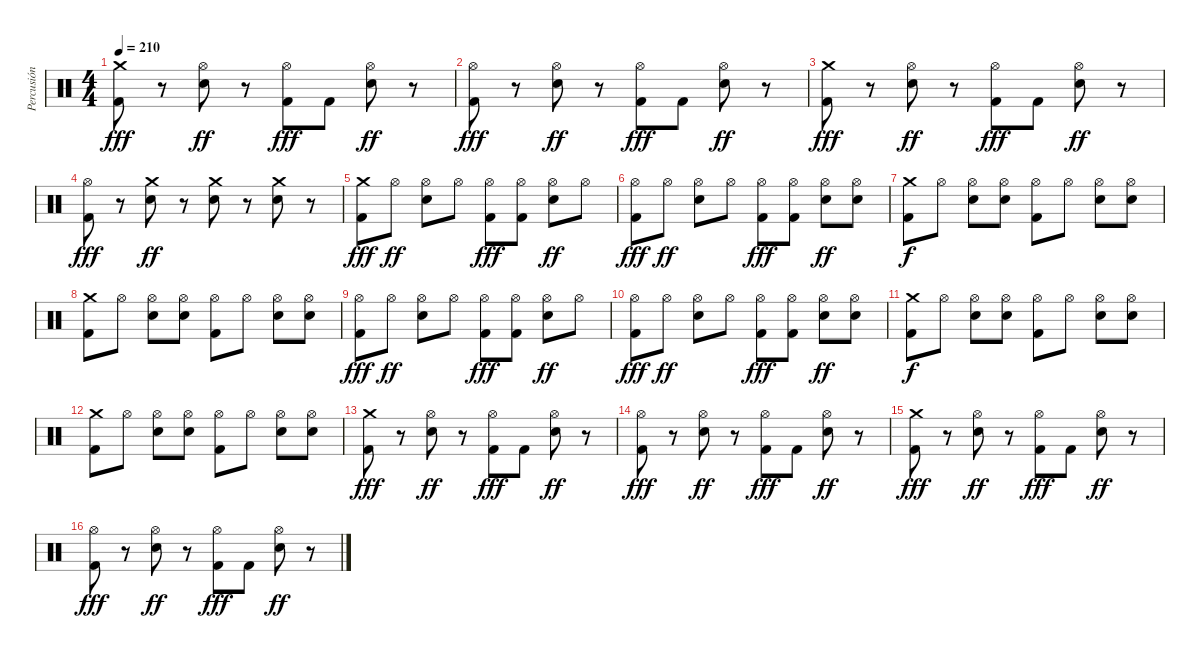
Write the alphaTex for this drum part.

\track ("Percusión" "Percusión") {instrument percussion}
\staff {score}
\articulation defaults
\ts (4 4)
\tempo 210
\clef neutral
\ks c
("Crash medium (hit)" "Kick (hit) 2").8{dy fff} r.8 ("Hi-Hat (open)" "Electric Snare (hit)").8{dy ff} r.8 ("Hi-Hat (open)" "Kick (hit) 2").8{dy fff} "Kick (hit) 2".8 ("Hi-Hat (open)" "Electric Snare (hit)").8{dy ff} r.8 |
("Hi-Hat (open)" "Kick (hit) 2").8{dy fff} r.8 ("Hi-Hat (open)" "Electric Snare (hit)").8{dy ff} r.8 ("Hi-Hat (open)" "Kick (hit) 2").8{dy fff} "Kick (hit) 2".8 ("Hi-Hat (open)" "Electric Snare (hit)").8{dy ff} r.8 |
("Crash medium (hit)" "Kick (hit) 2").8{dy fff} r.8 ("Hi-Hat (open)" "Electric Snare (hit)").8{dy ff} r.8 ("Hi-Hat (open)" "Kick (hit) 2").8{dy fff} "Kick (hit) 2".8 ("Hi-Hat (open)" "Electric Snare (hit)").8{dy ff} r.8 |
("Hi-Hat (open)" "Kick (hit) 2").8{dy fff} r.8 ("Crash medium (hit)" "Electric Snare (hit)").8{dy ff} r.8 ("Crash medium (hit)" "Electric Snare (hit)").8 r.8 ("Crash medium (hit)" "Electric Snare (hit)").8 r.8 |
("Crash medium (hit)" "Kick (hit) 2").8{dy fff} "Hi-Hat (open)".8{dy ff} ("Hi-Hat (open)" "Electric Snare (hit)").8 "Hi-Hat (open)".8 ("Hi-Hat (open)" "Kick (hit) 2").8{dy fff} ("Hi-Hat (open)" "Kick (hit) 2").8 ("Hi-Hat (open)" "Electric Snare (hit)").8{dy ff} "Hi-Hat (open)".8 |
("Hi-Hat (open)" "Kick (hit) 2").8{dy fff} "Hi-Hat (open)".8{dy ff} ("Hi-Hat (open)" "Electric Snare (hit)").8 "Hi-Hat (open)".8 ("Hi-Hat (open)" "Kick (hit) 2").8{dy fff} ("Hi-Hat (open)" "Kick (hit) 2").8 ("Hi-Hat (open)" "Electric Snare (hit)").8{dy ff} ("Hi-Hat (open)" "Electric Snare (hit)").8 |
("Crash medium (hit)" "Kick (hit) 2").8{dy f} "Hi-Hat (open)".8 ("Hi-Hat (open)" "Electric Snare (hit)").8 ("Hi-Hat (open)" "Electric Snare (hit)").8 ("Hi-Hat (open)" "Kick (hit) 2").8 "Hi-Hat (open)".8 ("Hi-Hat (open)" "Electric Snare (hit)").8 ("Hi-Hat (open)" "Electric Snare (hit)").8 |
("Crash medium (hit)" "Kick (hit) 2").8 "Hi-Hat (open)".8 ("Hi-Hat (open)" "Electric Snare (hit)").8 ("Hi-Hat (open)" "Electric Snare (hit)").8 ("Hi-Hat (open)" "Kick (hit) 2").8 "Hi-Hat (open)".8 ("Hi-Hat (open)" "Electric Snare (hit)").8 ("Hi-Hat (open)" "Electric Snare (hit)").8 |
("Hi-Hat (open)" "Kick (hit) 2").8{dy fff} "Hi-Hat (open)".8{dy ff} ("Hi-Hat (open)" "Electric Snare (hit)").8 "Hi-Hat (open)".8 ("Hi-Hat (open)" "Kick (hit) 2").8{dy fff} ("Hi-Hat (open)" "Kick (hit) 2").8 ("Hi-Hat (open)" "Electric Snare (hit)").8{dy ff} "Hi-Hat (open)".8 |
("Hi-Hat (open)" "Kick (hit) 2").8{dy fff} "Hi-Hat (open)".8{dy ff} ("Hi-Hat (open)" "Electric Snare (hit)").8 "Hi-Hat (open)".8 ("Hi-Hat (open)" "Kick (hit) 2").8{dy fff} ("Hi-Hat (open)" "Kick (hit) 2").8 ("Hi-Hat (open)" "Electric Snare (hit)").8{dy ff} ("Hi-Hat (open)" "Electric Snare (hit)").8 |
("Crash medium (hit)" "Kick (hit) 2").8{dy f} "Hi-Hat (open)".8 ("Hi-Hat (open)" "Electric Snare (hit)").8 ("Hi-Hat (open)" "Electric Snare (hit)").8 ("Hi-Hat (open)" "Kick (hit) 2").8 "Hi-Hat (open)".8 ("Hi-Hat (open)" "Electric Snare (hit)").8 ("Hi-Hat (open)" "Electric Snare (hit)").8 |
("Crash medium (hit)" "Kick (hit) 2").8 "Hi-Hat (open)".8 ("Hi-Hat (open)" "Electric Snare (hit)").8 ("Hi-Hat (open)" "Electric Snare (hit)").8 ("Hi-Hat (open)" "Kick (hit) 2").8 "Hi-Hat (open)".8 ("Hi-Hat (open)" "Electric Snare (hit)").8 ("Hi-Hat (open)" "Electric Snare (hit)").8 |
("Crash medium (hit)" "Kick (hit) 2").8{dy fff} r.8 ("Hi-Hat (open)" "Electric Snare (hit)").8{dy ff} r.8 ("Hi-Hat (open)" "Kick (hit) 2").8{dy fff} "Kick (hit) 2".8 ("Hi-Hat (open)" "Electric Snare (hit)").8{dy ff} r.8 |
("Hi-Hat (open)" "Kick (hit) 2").8{dy fff} r.8 ("Hi-Hat (open)" "Electric Snare (hit)").8{dy ff} r.8 ("Hi-Hat (open)" "Kick (hit) 2").8{dy fff} "Kick (hit) 2".8 ("Hi-Hat (open)" "Electric Snare (hit)").8{dy ff} r.8 |
("Crash medium (hit)" "Kick (hit) 2").8{dy fff} r.8 ("Hi-Hat (open)" "Electric Snare (hit)").8{dy ff} r.8 ("Hi-Hat (open)" "Kick (hit) 2").8{dy fff} "Kick (hit) 2".8 ("Hi-Hat (open)" "Electric Snare (hit)").8{dy ff} r.8 |
("Hi-Hat (open)" "Kick (hit) 2").8{dy fff} r.8 ("Hi-Hat (open)" "Electric Snare (hit)").8{dy ff} r.8 ("Hi-Hat (open)" "Kick (hit) 2").8{dy fff} "Kick (hit) 2".8 ("Hi-Hat (open)" "Electric Snare (hit)").8{dy ff} r.8
